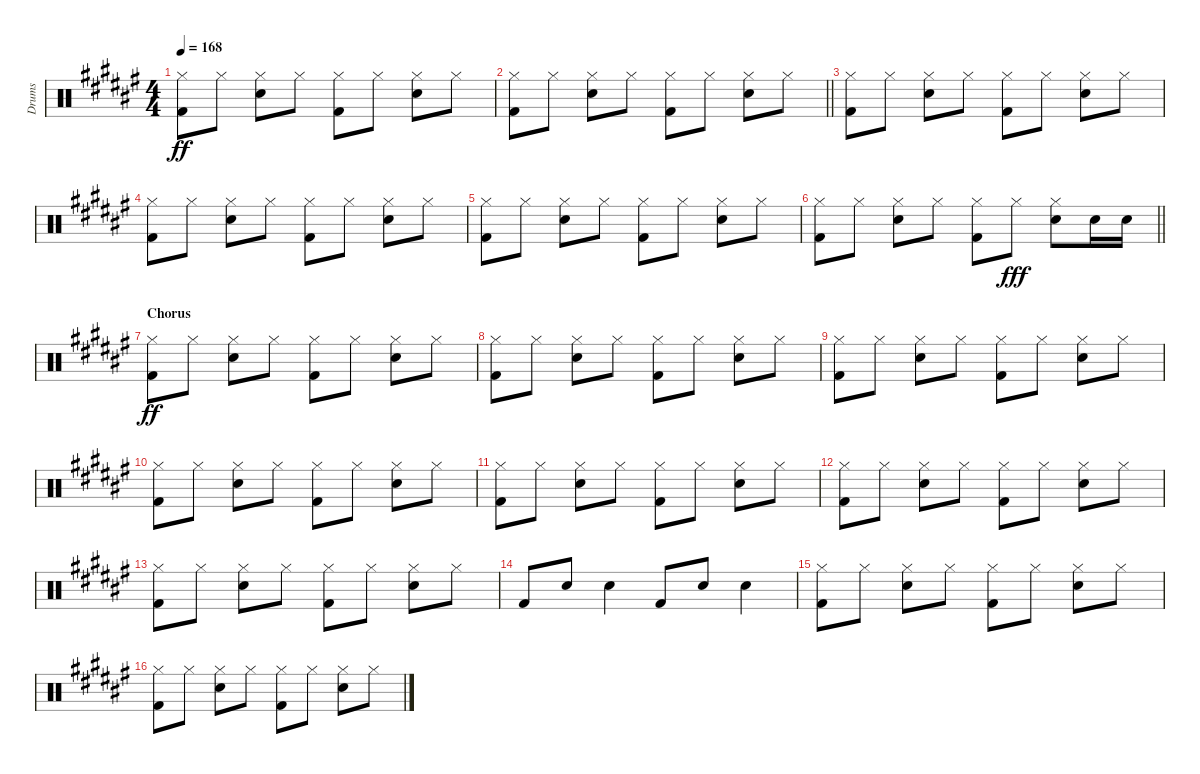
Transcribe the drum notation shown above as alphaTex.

\track ("Drums" "Drums") {instrument percussion}
\staff {score}
\articulation defaults
\ts (4 4)
\tempo 168
\clef neutral
\ks f#
("Hi-Hat (closed)" "Kick (hit) 2").8{dy ff} "Hi-Hat (closed)".8 ("Hi-Hat (closed)" "Snare (hit) 2").8 "Hi-Hat (closed)".8 ("Hi-Hat (closed)" "Kick (hit) 2").8 "Hi-Hat (closed)".8 ("Hi-Hat (closed)" "Snare (hit) 2").8 "Hi-Hat (closed)".8 |
\barLineRight lightlight
("Hi-Hat (closed)" "Kick (hit) 2").8 "Hi-Hat (closed)".8 ("Hi-Hat (closed)" "Snare (hit) 2").8 "Hi-Hat (closed)".8 ("Hi-Hat (closed)" "Kick (hit) 2").8 "Hi-Hat (closed)".8 ("Hi-Hat (closed)" "Snare (hit) 2").8 "Hi-Hat (closed)".8 |
("Hi-Hat (closed)" "Kick (hit) 2").8 "Hi-Hat (closed)".8 ("Hi-Hat (closed)" "Snare (hit) 2").8 "Hi-Hat (closed)".8 ("Hi-Hat (closed)" "Kick (hit) 2").8 "Hi-Hat (closed)".8 ("Hi-Hat (closed)" "Snare (hit) 2").8 "Hi-Hat (closed)".8 |
("Hi-Hat (closed)" "Kick (hit) 2").8 "Hi-Hat (closed)".8 ("Hi-Hat (closed)" "Snare (hit) 2").8 "Hi-Hat (closed)".8 ("Hi-Hat (closed)" "Kick (hit) 2").8 "Hi-Hat (closed)".8 ("Hi-Hat (closed)" "Snare (hit) 2").8 "Hi-Hat (closed)".8 |
("Hi-Hat (closed)" "Kick (hit) 2").8 "Hi-Hat (closed)".8 ("Hi-Hat (closed)" "Snare (hit) 2").8 "Hi-Hat (closed)".8 ("Hi-Hat (closed)" "Kick (hit) 2").8 "Hi-Hat (closed)".8 ("Hi-Hat (closed)" "Snare (hit) 2").8 "Hi-Hat (closed)".8 |
\barLineRight lightlight
("Hi-Hat (closed)" "Kick (hit) 2").8 "Hi-Hat (closed)".8 ("Hi-Hat (closed)" "Snare (hit) 2").8 "Hi-Hat (closed)".8 ("Hi-Hat (closed)" "Kick (hit) 2").8 "Hi-Hat (closed)".8{dy fff} ("Hi-Hat (closed)" "Snare (hit) 2").8 "Snare (hit) 2".16 "Snare (hit) 2".16 |
\section ("" "Chorus")
("Hi-Hat (closed)" "Kick (hit) 2").8{dy ff} "Hi-Hat (closed)".8 ("Hi-Hat (closed)" "Snare (hit) 2").8 "Hi-Hat (closed)".8 ("Hi-Hat (closed)" "Kick (hit) 2").8 "Hi-Hat (closed)".8 ("Hi-Hat (closed)" "Snare (hit) 2").8 "Hi-Hat (closed)".8 |
("Hi-Hat (closed)" "Kick (hit) 2").8 "Hi-Hat (closed)".8 ("Hi-Hat (closed)" "Snare (hit) 2").8 "Hi-Hat (closed)".8 ("Hi-Hat (closed)" "Kick (hit) 2").8 "Hi-Hat (closed)".8 ("Hi-Hat (closed)" "Snare (hit) 2").8 "Hi-Hat (closed)".8 |
("Hi-Hat (closed)" "Kick (hit) 2").8 "Hi-Hat (closed)".8 ("Hi-Hat (closed)" "Snare (hit) 2").8 "Hi-Hat (closed)".8 ("Hi-Hat (closed)" "Kick (hit) 2").8 "Hi-Hat (closed)".8 ("Hi-Hat (closed)" "Snare (hit) 2").8 "Hi-Hat (closed)".8 |
("Hi-Hat (closed)" "Kick (hit) 2").8 "Hi-Hat (closed)".8 ("Hi-Hat (closed)" "Snare (hit) 2").8 "Hi-Hat (closed)".8 ("Hi-Hat (closed)" "Kick (hit) 2").8 "Hi-Hat (closed)".8 ("Hi-Hat (closed)" "Snare (hit) 2").8 "Hi-Hat (closed)".8 |
("Hi-Hat (closed)" "Kick (hit) 2").8 "Hi-Hat (closed)".8 ("Hi-Hat (closed)" "Snare (hit) 2").8 "Hi-Hat (closed)".8 ("Hi-Hat (closed)" "Kick (hit) 2").8 "Hi-Hat (closed)".8 ("Hi-Hat (closed)" "Snare (hit) 2").8 "Hi-Hat (closed)".8 |
("Hi-Hat (closed)" "Kick (hit) 2").8 "Hi-Hat (closed)".8 ("Hi-Hat (closed)" "Snare (hit) 2").8 "Hi-Hat (closed)".8 ("Hi-Hat (closed)" "Kick (hit) 2").8 "Hi-Hat (closed)".8 ("Hi-Hat (closed)" "Snare (hit) 2").8 "Hi-Hat (closed)".8 |
("Hi-Hat (closed)" "Kick (hit) 2").8 "Hi-Hat (closed)".8 ("Hi-Hat (closed)" "Snare (hit) 2").8 "Hi-Hat (closed)".8 ("Hi-Hat (closed)" "Kick (hit) 2").8 "Hi-Hat (closed)".8 ("Hi-Hat (closed)" "Snare (hit) 2").8 "Hi-Hat (closed)".8 |
"Kick (hit) 2".8 "Snare (hit) 2".8 "Snare (hit) 2".4 "Kick (hit) 2".8 "Snare (hit) 2".8 "Snare (hit) 2".4 |
("Hi-Hat (closed)" "Kick (hit) 2").8 "Hi-Hat (closed)".8 ("Hi-Hat (closed)" "Snare (hit) 2").8 "Hi-Hat (closed)".8 ("Hi-Hat (closed)" "Kick (hit) 2").8 "Hi-Hat (closed)".8 ("Hi-Hat (closed)" "Snare (hit) 2").8 "Hi-Hat (closed)".8 |
("Hi-Hat (closed)" "Kick (hit) 2").8 "Hi-Hat (closed)".8 ("Hi-Hat (closed)" "Snare (hit) 2").8 "Hi-Hat (closed)".8 ("Hi-Hat (closed)" "Kick (hit) 2").8 "Hi-Hat (closed)".8 ("Hi-Hat (closed)" "Snare (hit) 2").8 "Hi-Hat (closed)".8
